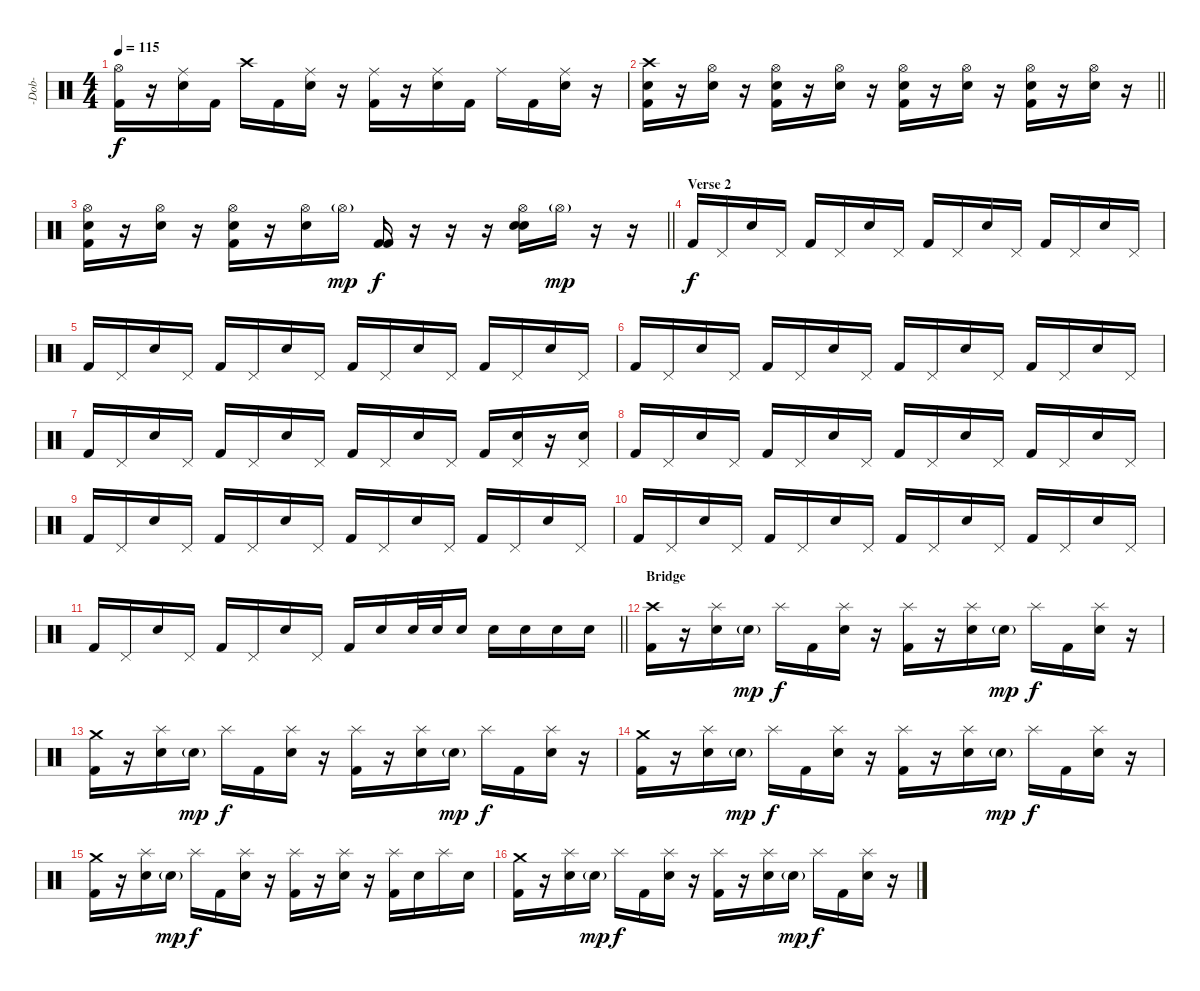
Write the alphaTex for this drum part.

\track ("-Dob-" "-Dob-") {instrument percussion}
\staff {score}
\articulation defaults
\ts (4 4)
\tempo 115
\clef neutral
\ks c
("Hi-Hat (open)" "Kick (hit) 2").16{dy f} r.16 ("Ride (middle)" "Snare (hit) 2").16 "Kick (hit) 2".16 "Crash high (hit)".16 "Kick (hit) 2".16 ("Ride (middle)" "Snare (hit) 2").16 r.16 ("Ride (middle)" "Kick (hit) 2").16 r.16 ("Ride (middle)" "Snare (hit) 2").16 "Kick (hit) 2".16 "Ride (middle)".16 "Kick (hit) 2".16 ("Ride (middle)" "Snare (hit) 2").16 r.16 |
\barLineRight lightlight
("Crash high (hit)" "Snare (hit) 2" "Kick (hit) 2").16 r.16 ("Hi-Hat (open)" "Snare (hit) 2").16 r.16 ("Hi-Hat (open)" "Snare (hit) 2" "Kick (hit) 2").16 r.16 ("Hi-Hat (open)" "Snare (hit) 2").16 r.16 ("Hi-Hat (open)" "Snare (hit) 2" "Kick (hit) 2").16 r.16 ("Hi-Hat (open)" "Snare (hit) 2").16 r.16 ("Hi-Hat (open)" "Snare (hit) 2" "Kick (hit) 2").16 r.16 ("Hi-Hat (open)" "Snare (hit) 2").16 r.16 |
\barLineRight lightlight
("Hi-Hat (open)" "Snare (hit) 2" "Kick (hit) 2").16 r.16 ("Hi-Hat (open)" "Snare (hit) 2").16 r.16 ("Hi-Hat (open)" "Snare (hit) 2" "Kick (hit) 2").16 r.16 ("Hi-Hat (open)" "Snare (hit) 2").16 "Hi-Hat (open)"{g}.16{dy mp} ("Kick (hit) 2" "Kick (hit) 2").16{dy f} r.16 r.16 r.16 ("Hi-Hat (open)" "Snare (hit) 2" "Snare (hit) 2").16 "Hi-Hat (open)"{g}.16{dy mp} r.16 r.16 |
\section ("" "Verse 2")
"Kick (hit) 2".16{dy f} "Pedal Hi-Hat (hit)".16 "Snare (hit) 2".16 "Pedal Hi-Hat (hit)".16 "Kick (hit) 2".16 "Pedal Hi-Hat (hit)".16 "Snare (hit) 2".16 "Pedal Hi-Hat (hit)".16 "Kick (hit) 2".16 "Pedal Hi-Hat (hit)".16 "Snare (hit) 2".16 "Pedal Hi-Hat (hit)".16 "Kick (hit) 2".16 "Pedal Hi-Hat (hit)".16 "Snare (hit) 2".16 "Pedal Hi-Hat (hit)".16 |
"Kick (hit) 2".16 "Pedal Hi-Hat (hit)".16 "Snare (hit) 2".16 "Pedal Hi-Hat (hit)".16 "Kick (hit) 2".16 "Pedal Hi-Hat (hit)".16 "Snare (hit) 2".16 "Pedal Hi-Hat (hit)".16 "Kick (hit) 2".16 "Pedal Hi-Hat (hit)".16 "Snare (hit) 2".16 "Pedal Hi-Hat (hit)".16 "Kick (hit) 2".16 "Pedal Hi-Hat (hit)".16 "Snare (hit) 2".16 "Pedal Hi-Hat (hit)".16 |
"Kick (hit) 2".16 "Pedal Hi-Hat (hit)".16 "Snare (hit) 2".16 "Pedal Hi-Hat (hit)".16 "Kick (hit) 2".16 "Pedal Hi-Hat (hit)".16 "Snare (hit) 2".16 "Pedal Hi-Hat (hit)".16 "Kick (hit) 2".16 "Pedal Hi-Hat (hit)".16 "Snare (hit) 2".16 "Pedal Hi-Hat (hit)".16 "Kick (hit) 2".16 "Pedal Hi-Hat (hit)".16 "Snare (hit) 2".16 "Pedal Hi-Hat (hit)".16 |
"Kick (hit) 2".16 "Pedal Hi-Hat (hit)".16 "Snare (hit) 2".16 "Pedal Hi-Hat (hit)".16 "Kick (hit) 2".16 "Pedal Hi-Hat (hit)".16 "Snare (hit) 2".16 "Pedal Hi-Hat (hit)".16 "Kick (hit) 2".16 "Pedal Hi-Hat (hit)".16 "Snare (hit) 2".16 "Pedal Hi-Hat (hit)".16 "Kick (hit) 2".16 ("Pedal Hi-Hat (hit)" "Snare (hit) 2").16 r.16 ("Pedal Hi-Hat (hit)" "Snare (hit) 2").16 |
"Kick (hit) 2".16 "Pedal Hi-Hat (hit)".16 "Snare (hit) 2".16 "Pedal Hi-Hat (hit)".16 "Kick (hit) 2".16 "Pedal Hi-Hat (hit)".16 "Snare (hit) 2".16 "Pedal Hi-Hat (hit)".16 "Kick (hit) 2".16 "Pedal Hi-Hat (hit)".16 "Snare (hit) 2".16 "Pedal Hi-Hat (hit)".16 "Kick (hit) 2".16 "Pedal Hi-Hat (hit)".16 "Snare (hit) 2".16 "Pedal Hi-Hat (hit)".16 |
"Kick (hit) 2".16 "Pedal Hi-Hat (hit)".16 "Snare (hit) 2".16 "Pedal Hi-Hat (hit)".16 "Kick (hit) 2".16 "Pedal Hi-Hat (hit)".16 "Snare (hit) 2".16 "Pedal Hi-Hat (hit)".16 "Kick (hit) 2".16 "Pedal Hi-Hat (hit)".16 "Snare (hit) 2".16 "Pedal Hi-Hat (hit)".16 "Kick (hit) 2".16 "Pedal Hi-Hat (hit)".16 "Snare (hit) 2".16 "Pedal Hi-Hat (hit)".16 |
"Kick (hit) 2".16 "Pedal Hi-Hat (hit)".16 "Snare (hit) 2".16 "Pedal Hi-Hat (hit)".16 "Kick (hit) 2".16 "Pedal Hi-Hat (hit)".16 "Snare (hit) 2".16 "Pedal Hi-Hat (hit)".16 "Kick (hit) 2".16 "Pedal Hi-Hat (hit)".16 "Snare (hit) 2".16 "Pedal Hi-Hat (hit)".16 "Kick (hit) 2".16 "Pedal Hi-Hat (hit)".16 "Snare (hit) 2".16 "Pedal Hi-Hat (hit)".16 |
\barLineRight lightlight "Kick (hit) 2".16 "Pedal Hi-Hat (hit)".16 "Snare (hit) 2".16 "Pedal Hi-Hat (hit)".16 "Kick (hit) 2".16 "Pedal Hi-Hat (hit)".16 "Snare (hit) 2".16 "Pedal Hi-Hat (hit)".16 "Kick (hit) 2".16 "Snare (hit) 2".16 "Snare (hit) 2".32 "Snare (hit) 2".32 "Snare (hit) 2".16 "Snare (hit) 2".16 "Snare (hit) 2".16 "Snare (hit) 2".16 "Snare (hit) 2".16
|
\section ("" "Bridge")
("Crash high (hit)" "Kick (hit) 2").16 r.16 ("Splash (hit)" "Snare (hit) 2").16 "Snare (hit) 2"{g}.16{dy mp} "Splash (hit)".16{dy f} "Kick (hit) 2".16 ("Splash (hit)" "Snare (hit) 2").16 r.16 ("Splash (hit)" "Kick (hit) 2").16 r.16 ("Splash (hit)" "Snare (hit) 2").16 "Snare (hit) 2"{g}.16{dy mp} "Splash (hit)".16{dy f} "Kick (hit) 2".16 ("Splash (hit)" "Snare (hit) 2").16 r.16 |
("Crash medium (hit)" "Kick (hit) 2").16 r.16 ("Splash (hit)" "Snare (hit) 2").16 "Snare (hit) 2"{g}.16{dy mp} "Splash (hit)".16{dy f} "Kick (hit) 2".16 ("Splash (hit)" "Snare (hit) 2").16 r.16 ("Splash (hit)" "Kick (hit) 2").16 r.16 ("Splash (hit)" "Snare (hit) 2").16 "Snare (hit) 2"{g}.16{dy mp} "Splash (hit)".16{dy f} "Kick (hit) 2".16 ("Splash (hit)" "Snare (hit) 2").16 r.16 |
("Crash medium (hit)" "Kick (hit) 2").16 r.16 ("Splash (hit)" "Snare (hit) 2").16 "Snare (hit) 2"{g}.16{dy mp} "Splash (hit)".16{dy f} "Kick (hit) 2".16 ("Splash (hit)" "Snare (hit) 2").16 r.16 ("Splash (hit)" "Kick (hit) 2").16 r.16 ("Splash (hit)" "Snare (hit) 2").16 "Snare (hit) 2"{g}.16{dy mp} "Splash (hit)".16{dy f} "Kick (hit) 2".16 ("Splash (hit)" "Snare (hit) 2").16 r.16 |
("Crash medium (hit)" "Kick (hit) 2").16 r.16 ("Splash (hit)" "Snare (hit) 2").16 "Snare (hit) 2"{g}.16{dy mp} "Splash (hit)".16{dy f} "Kick (hit) 2".16 ("Splash (hit)" "Snare (hit) 2").16 r.16 ("Splash (hit)" "Kick (hit) 2").16 r.16 ("Splash (hit)" "Snare (hit) 2").16 r.16 ("Splash (hit)" "Kick (hit) 2").16 "Snare (hit) 2".16 "Splash (hit)".16 "Snare (hit) 2".16 |
("Crash medium (hit)" "Kick (hit) 2").16 r.16 ("Splash (hit)" "Snare (hit) 2").16 "Snare (hit) 2"{g}.16{dy mp} "Splash (hit)".16{dy f} "Kick (hit) 2".16 ("Splash (hit)" "Snare (hit) 2").16 r.16 ("Splash (hit)" "Kick (hit) 2").16 r.16 ("Splash (hit)" "Snare (hit) 2").16 "Snare (hit) 2"{g}.16{dy mp} "Splash (hit)".16{dy f} "Kick (hit) 2".16 ("Splash (hit)" "Snare (hit) 2").16 r.16
